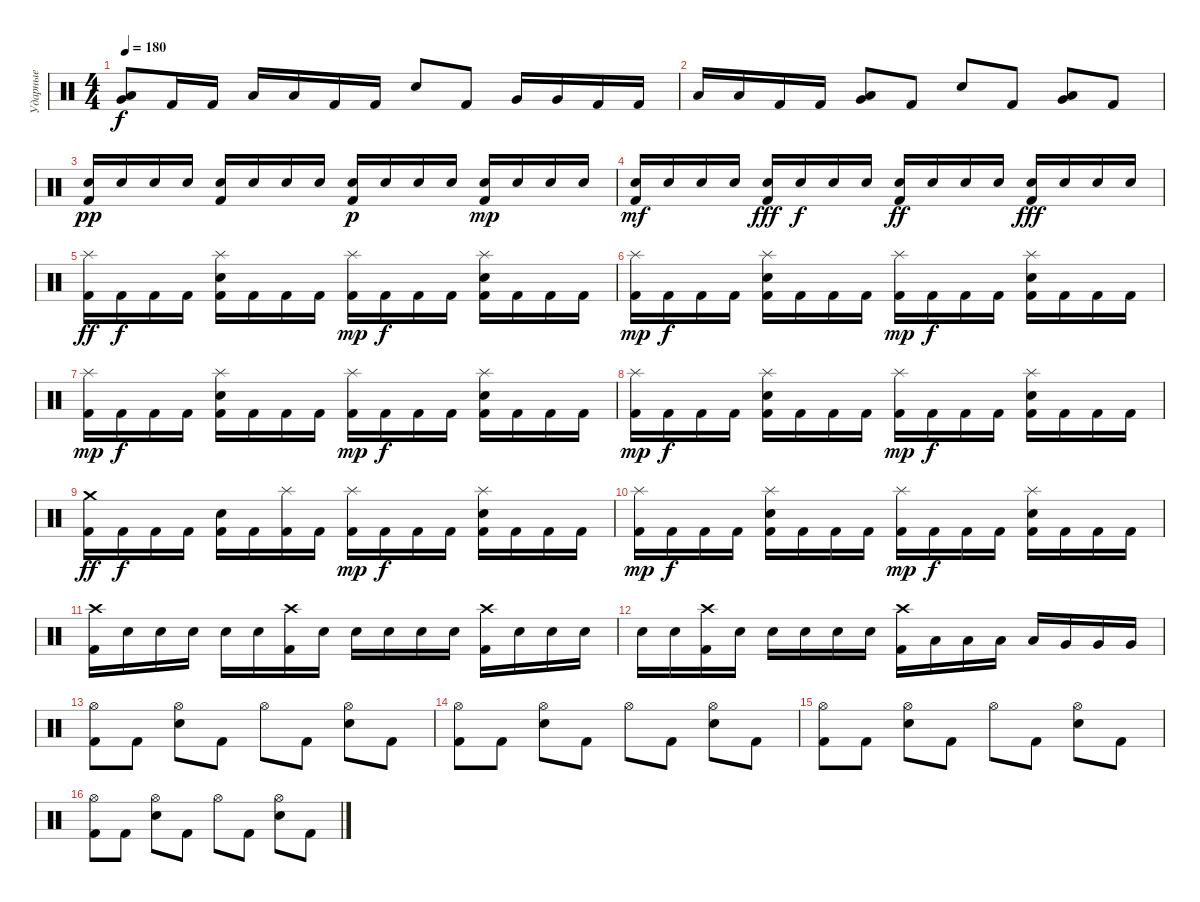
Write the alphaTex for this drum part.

\track ("Ударные" "Ударные") {instrument percussion bank 127}
\staff {score}
\articulation defaults
\ts (4 4)
\tempo 180
\clef neutral
\ks c
("Low Floor Tom (hit)" "Very Low Tom (hit)").8{dy f} "Kick (hit) 2".16 "Kick (hit) 2".16 "Low Floor Tom (hit)".16 "Low Floor Tom (hit)".16 "Kick (hit) 2".16 "Kick (hit) 2".16 "Snare (hit) 2".8 "Kick (hit) 2".8 "Very Low Tom (hit)".16 "Very Low Tom (hit)".16 "Kick (hit) 2".16 "Kick (hit) 2".16 |
"Low Floor Tom (hit)".16 "Low Floor Tom (hit)".16 "Kick (hit) 2".16 "Kick (hit) 2".16 ("Very Low Tom (hit)" "Low Floor Tom (hit)").8 "Kick (hit) 2".8 "Snare (hit) 2".8 "Kick (hit) 2".8 ("Low Floor Tom (hit)" "Very Low Tom (hit)").8 "Kick (hit) 2".8 |
("Kick (hit) 2" "Snare (hit) 2").16{dy pp} "Snare (hit) 2".16 "Snare (hit) 2".16 "Snare (hit) 2".16 ("Kick (hit) 2" "Snare (hit) 2").16 "Snare (hit) 2".16 "Snare (hit) 2".16 "Snare (hit) 2".16 ("Kick (hit) 2" "Snare (hit) 2").16{dy p} "Snare (hit) 2".16 "Snare (hit) 2".16 "Snare (hit) 2".16 ("Kick (hit) 2" "Snare (hit) 2").16{dy mp} "Snare (hit) 2".16 "Snare (hit) 2".16 "Snare (hit) 2".16 |
("Kick (hit) 2" "Snare (hit) 2").16{dy mf} "Snare (hit) 2".16 "Snare (hit) 2".16 "Snare (hit) 2".16 ("Kick (hit) 2" "Snare (hit) 2").16{dy fff} "Snare (hit) 2".16{dy f} "Snare (hit) 2".16 "Snare (hit) 2".16 ("Kick (hit) 2" "Snare (hit) 2").16{dy ff} "Snare (hit) 2".16 "Snare (hit) 2".16 "Snare (hit) 2".16 ("Kick (hit) 2" "Snare (hit) 2").16{dy fff} "Snare (hit) 2".16 "Snare (hit) 2".16 "Snare (hit) 2".16 |
("Splash (hit)" "Kick (hit) 2").16{dy ff} "Kick (hit) 2".16{dy f} "Kick (hit) 2".16 "Kick (hit) 2".16 ("Splash (hit)" "Snare (hit) 2" "Kick (hit) 2").16 "Kick (hit) 2".16 "Kick (hit) 2".16 "Kick (hit) 2".16 ("Splash (hit)" "Kick (hit) 2").16{dy mp} "Kick (hit) 2".16{dy f} "Kick (hit) 2".16 "Kick (hit) 2".16 ("Splash (hit)" "Snare (hit) 2" "Kick (hit) 2").16 "Kick (hit) 2".16 "Kick (hit) 2".16 "Kick (hit) 2".16 |
("Splash (hit)" "Kick (hit) 2").16{dy mp} "Kick (hit) 2".16{dy f} "Kick (hit) 2".16 "Kick (hit) 2".16 ("Splash (hit)" "Snare (hit) 2" "Kick (hit) 2").16 "Kick (hit) 2".16 "Kick (hit) 2".16 "Kick (hit) 2".16 ("Splash (hit)" "Kick (hit) 2").16{dy mp} "Kick (hit) 2".16{dy f} "Kick (hit) 2".16 "Kick (hit) 2".16 ("Splash (hit)" "Snare (hit) 2" "Kick (hit) 2").16 "Kick (hit) 2".16 "Kick (hit) 2".16 "Kick (hit) 2".16 |
("Splash (hit)" "Kick (hit) 2").16{dy mp} "Kick (hit) 2".16{dy f} "Kick (hit) 2".16 "Kick (hit) 2".16 ("Splash (hit)" "Snare (hit) 2" "Kick (hit) 2").16 "Kick (hit) 2".16 "Kick (hit) 2".16 "Kick (hit) 2".16 ("Splash (hit)" "Kick (hit) 2").16{dy mp} "Kick (hit) 2".16{dy f} "Kick (hit) 2".16 "Kick (hit) 2".16 ("Splash (hit)" "Snare (hit) 2" "Kick (hit) 2").16 "Kick (hit) 2".16 "Kick (hit) 2".16 "Kick (hit) 2".16 |
("Splash (hit)" "Kick (hit) 2").16{dy mp} "Kick (hit) 2".16{dy f} "Kick (hit) 2".16 "Kick (hit) 2".16 ("Splash (hit)" "Snare (hit) 2" "Kick (hit) 2").16 "Kick (hit) 2".16 "Kick (hit) 2".16 "Kick (hit) 2".16 ("Splash (hit)" "Kick (hit) 2").16{dy mp} "Kick (hit) 2".16{dy f} "Kick (hit) 2".16 "Kick (hit) 2".16 ("Splash (hit)" "Snare (hit) 2" "Kick (hit) 2").16 "Kick (hit) 2".16 "Kick (hit) 2".16 "Kick (hit) 2".16 |
("Crash medium (hit)" "Kick (hit) 2").16{dy ff} "Kick (hit) 2".16{dy f} "Kick (hit) 2".16 "Kick (hit) 2".16 ("Snare (hit) 2" "Kick (hit) 2").16 "Kick (hit) 2".16 ("Splash (hit)" "Kick (hit) 2").16 "Kick (hit) 2".16 ("Splash (hit)" "Kick (hit) 2").16{dy mp} "Kick (hit) 2".16{dy f} "Kick (hit) 2".16 "Kick (hit) 2".16 ("Splash (hit)" "Snare (hit) 2" "Kick (hit) 2").16 "Kick (hit) 2".16 "Kick (hit) 2".16 "Kick (hit) 2".16 |
("Splash (hit)" "Kick (hit) 2").16{dy mp} "Kick (hit) 2".16{dy f} "Kick (hit) 2".16 "Kick (hit) 2".16 ("Splash (hit)" "Snare (hit) 2" "Kick (hit) 2").16 "Kick (hit) 2".16 "Kick (hit) 2".16 "Kick (hit) 2".16 ("Splash (hit)" "Kick (hit) 2").16{dy mp} "Kick (hit) 2".16{dy f} "Kick (hit) 2".16 "Kick (hit) 2".16 ("Splash (hit)" "Snare (hit) 2" "Kick (hit) 2").16 "Kick (hit) 2".16 "Kick (hit) 2".16 "Kick (hit) 2".16 |
("Crash high (hit)" "Kick (hit) 2").16 "Snare (hit) 2".16 "Snare (hit) 2".16 "Snare (hit) 2".16 "Snare (hit) 2".16 "Snare (hit) 2".16 ("Crash high (hit)" "Kick (hit) 2").16 "Snare (hit) 2".16 "Snare (hit) 2".16 "Snare (hit) 2".16 "Snare (hit) 2".16 "Snare (hit) 2".16 ("Crash high (hit)" "Kick (hit) 2").16 "Snare (hit) 2".16 "Snare (hit) 2".16 "Snare (hit) 2".16 |
"Snare (hit) 2".16 "Snare (hit) 2".16 ("Crash high (hit)" "Kick (hit) 2").16 "Snare (hit) 2".16 "Snare (hit) 2".16 "Snare (hit) 2".16 "Snare (hit) 2".16 "Snare (hit) 2".16 ("Crash high (hit)" "Kick (hit) 2").16 "Low Tom (hit)".16 "Low Tom (hit)".16 "Low Tom (hit)".16 "Low Tom (hit)".16 "Very Low Tom (hit)".16 "Very Low Tom (hit)".16 "Very Low Tom (hit)".16 |
("Hi-Hat (open)" "Kick (hit) 2").8 "Kick (hit) 2".8 ("Hi-Hat (open)" "Snare (hit) 2").8 "Kick (hit) 2".8 "Hi-Hat (open)".8 "Kick (hit) 2".8 ("Hi-Hat (open)" "Snare (hit) 2").8 "Kick (hit) 2".8 |
("Hi-Hat (open)" "Kick (hit) 2").8 "Kick (hit) 2".8 ("Hi-Hat (open)" "Snare (hit) 2").8 "Kick (hit) 2".8 "Hi-Hat (open)".8 "Kick (hit) 2".8 ("Hi-Hat (open)" "Snare (hit) 2").8 "Kick (hit) 2".8 |
("Hi-Hat (open)" "Kick (hit) 2").8 "Kick (hit) 2".8 ("Hi-Hat (open)" "Snare (hit) 2").8 "Kick (hit) 2".8 "Hi-Hat (open)".8 "Kick (hit) 2".8 ("Hi-Hat (open)" "Snare (hit) 2").8 "Kick (hit) 2".8 |
("Hi-Hat (open)" "Kick (hit) 2").8 "Kick (hit) 2".8 ("Hi-Hat (open)" "Snare (hit) 2").8 "Kick (hit) 2".8 "Hi-Hat (open)".8 "Kick (hit) 2".8 ("Hi-Hat (open)" "Snare (hit) 2").8 "Kick (hit) 2".8
